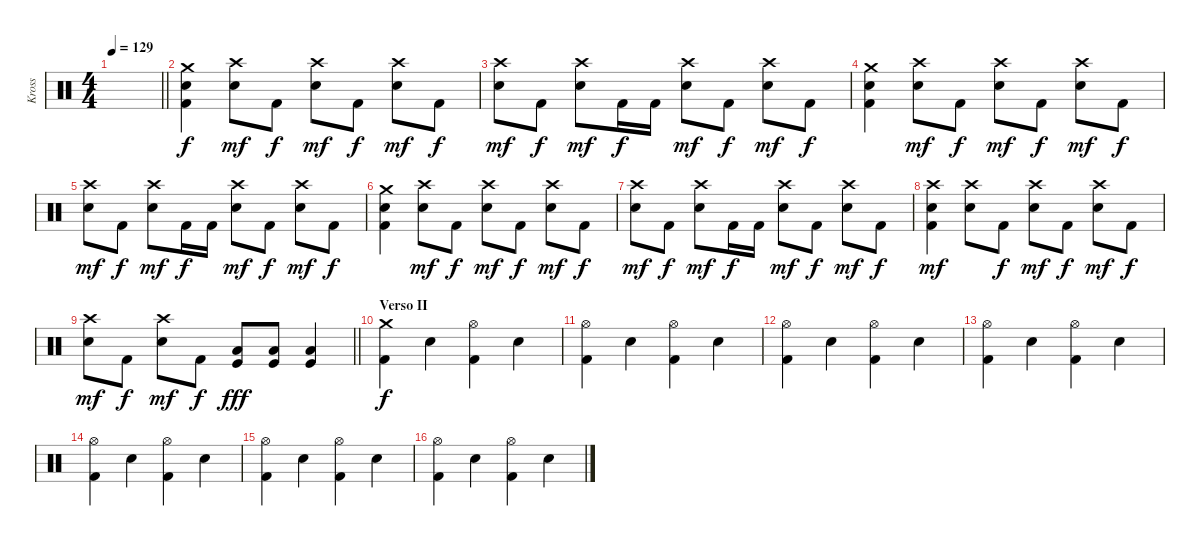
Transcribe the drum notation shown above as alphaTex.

\track ("Kross" "Kross") {instrument percussion}
\staff {score}
\articulation defaults
\ts (4 4)
\tempo 129
\clef neutral
\barLineRight lightlight
\ks c
|
("Crash medium (hit)" "Electric Snare (hit)" "Kick (hit) 2").4{dy f} ("Crash high (hit)" "Electric Snare (hit)").8{dy mf} "Kick (hit) 2".8{dy f} ("Crash high (hit)" "Electric Snare (hit)").8{dy mf} "Kick (hit) 2".8{dy f} ("Crash high (hit)" "Electric Snare (hit)").8{dy mf} "Kick (hit) 2".8{dy f} |
("Crash high (hit)" "Electric Snare (hit)").8{dy mf} "Kick (hit) 2".8{dy f} ("Crash high (hit)" "Electric Snare (hit)").8{dy mf} "Kick (hit) 2".16{dy f} "Kick (hit) 2".16 ("Crash high (hit)" "Electric Snare (hit)").8{dy mf} "Kick (hit) 2".8{dy f} ("Crash high (hit)" "Electric Snare (hit)").8{dy mf} "Kick (hit) 2".8{dy f} |
("Crash medium (hit)" "Electric Snare (hit)" "Kick (hit) 2").4 ("Crash high (hit)" "Electric Snare (hit)").8{dy mf} "Kick (hit) 2".8{dy f} ("Crash high (hit)" "Electric Snare (hit)").8{dy mf} "Kick (hit) 2".8{dy f} ("Crash high (hit)" "Electric Snare (hit)").8{dy mf} "Kick (hit) 2".8{dy f} |
("Crash high (hit)" "Electric Snare (hit)").8{dy mf} "Kick (hit) 2".8{dy f} ("Crash high (hit)" "Electric Snare (hit)").8{dy mf} "Kick (hit) 2".16{dy f} "Kick (hit) 2".16 ("Crash high (hit)" "Electric Snare (hit)").8{dy mf} "Kick (hit) 2".8{dy f} ("Crash high (hit)" "Electric Snare (hit)").8{dy mf} "Kick (hit) 2".8{dy f} |
("Crash medium (hit)" "Electric Snare (hit)" "Kick (hit) 2").4 ("Crash high (hit)" "Electric Snare (hit)").8{dy mf} "Kick (hit) 2".8{dy f} ("Crash high (hit)" "Electric Snare (hit)").8{dy mf} "Kick (hit) 2".8{dy f} ("Crash high (hit)" "Electric Snare (hit)").8{dy mf} "Kick (hit) 2".8{dy f} |
("Crash high (hit)" "Electric Snare (hit)").8{dy mf} "Kick (hit) 2".8{dy f} ("Crash high (hit)" "Electric Snare (hit)").8{dy mf} "Kick (hit) 2".16{dy f} "Kick (hit) 2".16 ("Crash high (hit)" "Electric Snare (hit)").8{dy mf} "Kick (hit) 2".8{dy f} ("Crash high (hit)" "Electric Snare (hit)").8{dy mf} "Kick (hit) 2".8{dy f} |
("Crash high (hit)" "Electric Snare (hit)" "Kick (hit) 2").4{dy mf} ("Crash high (hit)" "Electric Snare (hit)").8 "Kick (hit) 2".8{dy f} ("Crash high (hit)" "Electric Snare (hit)").8{dy mf} "Kick (hit) 2".8{dy f} ("Crash high (hit)" "Electric Snare (hit)").8{dy mf} "Kick (hit) 2".8{dy f} |
\barLineRight lightlight
("Crash high (hit)" "Electric Snare (hit)").8{dy mf} "Kick (hit) 2".8{dy f} ("Crash high (hit)" "Electric Snare (hit)").8{dy mf} "Kick (hit) 2".8{dy f} ("Low Floor Tom (hit)" "Kick (hit)").8{dy fff} ("Low Floor Tom (hit)" "Kick (hit)").8 ("Low Floor Tom (hit)" "Kick (hit)").4 |
\section ("" "Verso II")
("Crash medium (hit)" "Kick (hit) 2").4{dy f} "Electric Snare (hit)".4 ("Hi-Hat (open)" "Kick (hit) 2").4 "Electric Snare (hit)".4 |
("Hi-Hat (open)" "Kick (hit) 2").4 "Electric Snare (hit)".4 ("Hi-Hat (open)" "Kick (hit) 2").4 "Electric Snare (hit)".4 |
("Hi-Hat (open)" "Kick (hit) 2").4 "Electric Snare (hit)".4 ("Hi-Hat (open)" "Kick (hit) 2").4 "Electric Snare (hit)".4 |
("Hi-Hat (open)" "Kick (hit) 2").4 "Electric Snare (hit)".4 ("Hi-Hat (open)" "Kick (hit) 2").4 "Electric Snare (hit)".4 |
("Hi-Hat (open)" "Kick (hit) 2").4 "Electric Snare (hit)".4 ("Hi-Hat (open)" "Kick (hit) 2").4 "Electric Snare (hit)".4 |
("Hi-Hat (open)" "Kick (hit) 2").4 "Electric Snare (hit)".4 ("Hi-Hat (open)" "Kick (hit) 2").4 "Electric Snare (hit)".4 |
("Hi-Hat (open)" "Kick (hit) 2").4 "Electric Snare (hit)".4 ("Hi-Hat (open)" "Kick (hit) 2").4 "Electric Snare (hit)".4
